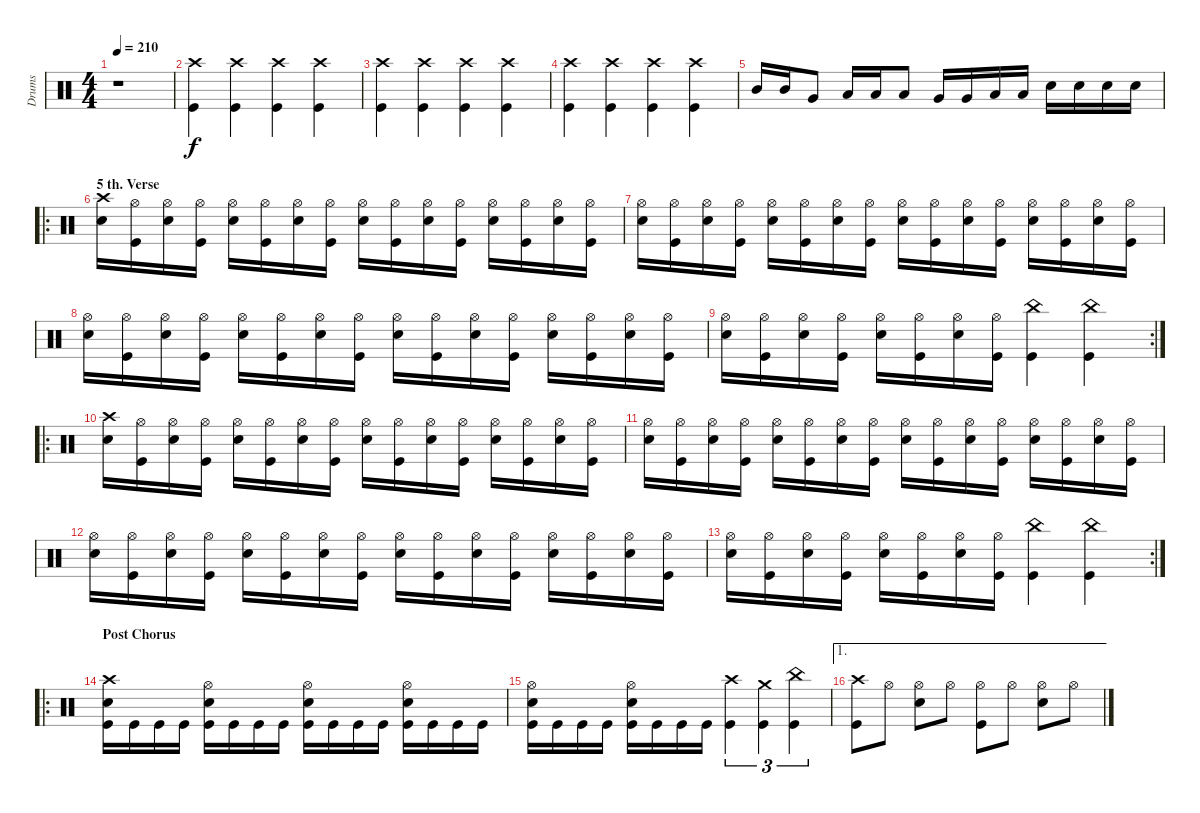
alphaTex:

\track ("Drums" "Drums") {instrument percussion}
\staff {score}
\articulation defaults
\ts (4 4)
\tempo 210
\clef neutral
\ks c
r.1{dy f} |
("Crash high (hit)" "Kick (hit)").4 ("Crash high (hit)" "Kick (hit)").4 ("Crash high (hit)" "Kick (hit)").4 ("Crash high (hit)" "Kick (hit)").4 |
("Crash high (hit)" "Kick (hit)").4 ("Crash high (hit)" "Kick (hit)").4 ("Crash high (hit)" "Kick (hit)").4 ("Crash high (hit)" "Kick (hit)").4 |
("Crash high (hit)" "Kick (hit)").4 ("Crash high (hit)" "Kick (hit)").4 ("Crash high (hit)" "Kick (hit)").4 ("Crash high (hit)" "Kick (hit)").4 |
"Mid Tom (hit)".16 "Mid Tom (hit)".16 "Very Low Tom (hit)".8 "Low Tom (hit)".16 "Low Tom (hit)".16 "Low Floor Tom (hit)".8 "Very Low Tom (hit)".16 "Very Low Tom (hit)".16 "Low Floor Tom (hit)".16 "Low Floor Tom (hit)".16 "Snare (hit) 2".16 "Snare (hit) 2".16 "Snare (hit) 2".16 "Snare (hit) 2".16 |
\ro
\section ("" "5 th. Verse")
("Crash high (hit)" "Snare (hit) 2").16 ("Hi-Hat (open)" "Kick (hit)").16 ("Hi-Hat (open)" "Snare (hit) 2").16 ("Hi-Hat (open)" "Kick (hit)").16 ("Hi-Hat (open)" "Snare (hit) 2").16 ("Hi-Hat (open)" "Kick (hit)").16 ("Hi-Hat (open)" "Snare (hit) 2").16 ("Hi-Hat (open)" "Kick (hit)").16 ("Hi-Hat (open)" "Snare (hit) 2").16 ("Hi-Hat (open)" "Kick (hit)").16 ("Hi-Hat (open)" "Snare (hit) 2").16 ("Hi-Hat (open)" "Kick (hit)").16 ("Hi-Hat (open)" "Snare (hit) 2").16 ("Hi-Hat (open)" "Kick (hit)").16 ("Hi-Hat (open)" "Snare (hit) 2").16 ("Hi-Hat (open)" "Kick (hit)").16 |
("Hi-Hat (open)" "Snare (hit) 2").16 ("Hi-Hat (open)" "Kick (hit)").16 ("Hi-Hat (open)" "Snare (hit) 2").16 ("Hi-Hat (open)" "Kick (hit)").16 ("Hi-Hat (open)" "Snare (hit) 2").16 ("Hi-Hat (open)" "Kick (hit)").16 ("Hi-Hat (open)" "Snare (hit) 2").16 ("Hi-Hat (open)" "Kick (hit)").16 ("Hi-Hat (open)" "Snare (hit) 2").16 ("Hi-Hat (open)" "Kick (hit)").16 ("Hi-Hat (open)" "Snare (hit) 2").16 ("Hi-Hat (open)" "Kick (hit)").16 ("Hi-Hat (open)" "Snare (hit) 2").16 ("Hi-Hat (open)" "Kick (hit)").16 ("Hi-Hat (open)" "Snare (hit) 2").16 ("Hi-Hat (open)" "Kick (hit)").16 |
("Hi-Hat (open)" "Snare (hit) 2").16 ("Hi-Hat (open)" "Kick (hit)").16 ("Hi-Hat (open)" "Snare (hit) 2").16 ("Hi-Hat (open)" "Kick (hit)").16 ("Hi-Hat (open)" "Snare (hit) 2").16 ("Hi-Hat (open)" "Kick (hit)").16 ("Hi-Hat (open)" "Snare (hit) 2").16 ("Hi-Hat (open)" "Kick (hit)").16 ("Hi-Hat (open)" "Snare (hit) 2").16 ("Hi-Hat (open)" "Kick (hit)").16 ("Hi-Hat (open)" "Snare (hit) 2").16 ("Hi-Hat (open)" "Kick (hit)").16 ("Hi-Hat (open)" "Snare (hit) 2").16 ("Hi-Hat (open)" "Kick (hit)").16 ("Hi-Hat (open)" "Snare (hit) 2").16 ("Hi-Hat (open)" "Kick (hit)").16 |
\rc 2
("Hi-Hat (open)" "Snare (hit) 2").16 ("Hi-Hat (open)" "Kick (hit)").16 ("Hi-Hat (open)" "Snare (hit) 2").16 ("Hi-Hat (open)" "Kick (hit)").16 ("Hi-Hat (open)" "Snare (hit) 2").16 ("Hi-Hat (open)" "Kick (hit)").16 ("Hi-Hat (open)" "Snare (hit) 2").16 ("Hi-Hat (open)" "Kick (hit)").16 ("China (hit)" "Kick (hit)").4 ("China (hit)" "Kick (hit)").4 |
\ro
("Crash high (hit)" "Snare (hit) 2").16 ("Hi-Hat (open)" "Kick (hit)").16 ("Hi-Hat (open)" "Snare (hit) 2").16 ("Hi-Hat (open)" "Kick (hit)").16 ("Hi-Hat (open)" "Snare (hit) 2").16 ("Hi-Hat (open)" "Kick (hit)").16 ("Hi-Hat (open)" "Snare (hit) 2").16 ("Hi-Hat (open)" "Kick (hit)").16 ("Hi-Hat (open)" "Snare (hit) 2").16 ("Hi-Hat (open)" "Kick (hit)").16 ("Hi-Hat (open)" "Snare (hit) 2").16 ("Hi-Hat (open)" "Kick (hit)").16 ("Hi-Hat (open)" "Snare (hit) 2").16 ("Hi-Hat (open)" "Kick (hit)").16 ("Hi-Hat (open)" "Snare (hit) 2").16 ("Hi-Hat (open)" "Kick (hit)").16 |
("Hi-Hat (open)" "Snare (hit) 2").16 ("Hi-Hat (open)" "Kick (hit)").16 ("Hi-Hat (open)" "Snare (hit) 2").16 ("Hi-Hat (open)" "Kick (hit)").16 ("Hi-Hat (open)" "Snare (hit) 2").16 ("Hi-Hat (open)" "Kick (hit)").16 ("Hi-Hat (open)" "Snare (hit) 2").16 ("Hi-Hat (open)" "Kick (hit)").16 ("Hi-Hat (open)" "Snare (hit) 2").16 ("Hi-Hat (open)" "Kick (hit)").16 ("Hi-Hat (open)" "Snare (hit) 2").16 ("Hi-Hat (open)" "Kick (hit)").16 ("Hi-Hat (open)" "Snare (hit) 2").16 ("Hi-Hat (open)" "Kick (hit)").16 ("Hi-Hat (open)" "Snare (hit) 2").16 ("Hi-Hat (open)" "Kick (hit)").16 |
("Hi-Hat (open)" "Snare (hit) 2").16 ("Hi-Hat (open)" "Kick (hit)").16 ("Hi-Hat (open)" "Snare (hit) 2").16 ("Hi-Hat (open)" "Kick (hit)").16 ("Hi-Hat (open)" "Snare (hit) 2").16 ("Hi-Hat (open)" "Kick (hit)").16 ("Hi-Hat (open)" "Snare (hit) 2").16 ("Hi-Hat (open)" "Kick (hit)").16 ("Hi-Hat (open)" "Snare (hit) 2").16 ("Hi-Hat (open)" "Kick (hit)").16 ("Hi-Hat (open)" "Snare (hit) 2").16 ("Hi-Hat (open)" "Kick (hit)").16 ("Hi-Hat (open)" "Snare (hit) 2").16 ("Hi-Hat (open)" "Kick (hit)").16 ("Hi-Hat (open)" "Snare (hit) 2").16 ("Hi-Hat (open)" "Kick (hit)").16 |
\rc 2
("Hi-Hat (open)" "Snare (hit) 2").16 ("Hi-Hat (open)" "Kick (hit)").16 ("Hi-Hat (open)" "Snare (hit) 2").16 ("Hi-Hat (open)" "Kick (hit)").16 ("Hi-Hat (open)" "Snare (hit) 2").16 ("Hi-Hat (open)" "Kick (hit)").16 ("Hi-Hat (open)" "Snare (hit) 2").16 ("Hi-Hat (open)" "Kick (hit)").16 ("China (hit)" "Kick (hit)").4 ("China (hit)" "Kick (hit)").4 |
\ro
\section ("" "Post Chorus")
("Crash high (hit)" "Snare (hit) 2" "Kick (hit)").16 "Kick (hit)".16 "Kick (hit)".16 "Kick (hit)".16 ("Hi-Hat (open)" "Snare (hit) 2" "Kick (hit)").16 "Kick (hit)".16 "Kick (hit)".16 "Kick (hit)".16 ("Hi-Hat (open)" "Snare (hit) 2" "Kick (hit)").16 "Kick (hit)".16 "Kick (hit)".16 "Kick (hit)".16 ("Hi-Hat (open)" "Snare (hit) 2" "Kick (hit)").16 "Kick (hit)".16 "Kick (hit)".16 "Kick (hit)".16 |
("Hi-Hat (open)" "Snare (hit) 2" "Kick (hit)").16 "Kick (hit)".16 "Kick (hit)".16 "Kick (hit)".16 ("Hi-Hat (open)" "Snare (hit) 2" "Kick (hit)").16 "Kick (hit)".16 "Kick (hit)".16 "Kick (hit)".16 ("Crash high (hit)" "Kick (hit)").4{tu (3 2)} ("Crash medium (hit)" "Kick (hit)").4{tu (3 2)} ("China (hit)" "Kick (hit)").4{tu (3 2)} |
\ae 1
("Crash high (hit)" "Kick (hit)").8 "Hi-Hat (open)".8 ("Hi-Hat (open)" "Snare (hit) 2").8 "Hi-Hat (open)".8 ("Hi-Hat (open)" "Kick (hit)").8 "Hi-Hat (open)".8 ("Hi-Hat (open)" "Snare (hit) 2").8 "Hi-Hat (open)".8
